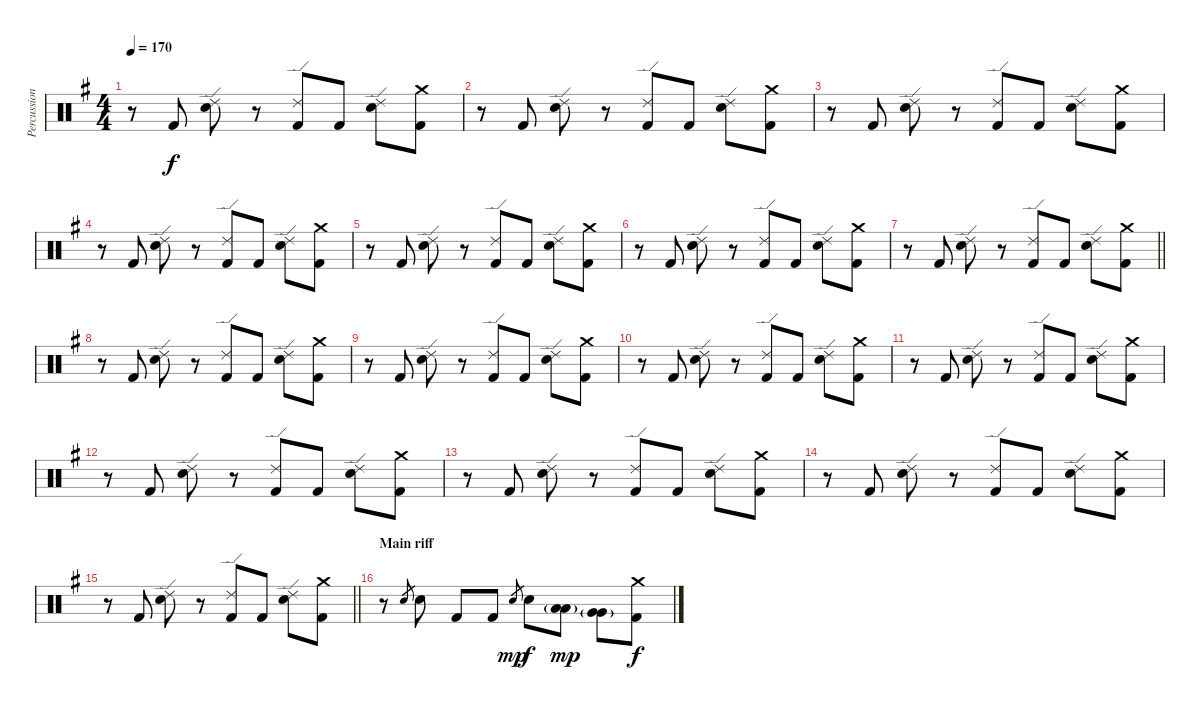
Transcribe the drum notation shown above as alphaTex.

\track ("Percussion" "Percussion") {instrument percussion}
\staff {score}
\articulation defaults
\ts (4 4)
\section ("" "")
\tempo 170
\clef neutral
\ks g
r.8{dy f} "Kick (hit) 2".8 ("Ride (edge) 2" "Electric Snare (hit)").8 r.8 ("Ride (edge) 2" "Kick (hit) 2").8 "Kick (hit) 2".8 ("Ride (edge) 2" "Electric Snare (hit)").8 ("Crash medium (hit)" "Kick (hit) 2").8 |
r.8 "Kick (hit) 2".8 ("Ride (edge) 2" "Electric Snare (hit)").8 r.8 ("Ride (edge) 2" "Kick (hit) 2").8 "Kick (hit) 2".8 ("Ride (edge) 2" "Electric Snare (hit)").8 ("Crash medium (hit)" "Kick (hit) 2").8 |
r.8 "Kick (hit) 2".8 ("Ride (edge) 2" "Electric Snare (hit)").8 r.8 ("Ride (edge) 2" "Kick (hit) 2").8 "Kick (hit) 2".8 ("Ride (edge) 2" "Electric Snare (hit)").8 ("Crash medium (hit)" "Kick (hit) 2").8 |
r.8 "Kick (hit) 2".8 ("Ride (edge) 2" "Electric Snare (hit)").8 r.8 ("Ride (edge) 2" "Kick (hit) 2").8 "Kick (hit) 2".8 ("Ride (edge) 2" "Electric Snare (hit)").8 ("Crash medium (hit)" "Kick (hit) 2").8 |
r.8 "Kick (hit) 2".8 ("Ride (edge) 2" "Electric Snare (hit)").8 r.8 ("Ride (edge) 2" "Kick (hit) 2").8 "Kick (hit) 2".8 ("Ride (edge) 2" "Electric Snare (hit)").8 ("Crash medium (hit)" "Kick (hit) 2").8 |
r.8 "Kick (hit) 2".8 ("Ride (edge) 2" "Electric Snare (hit)").8 r.8 ("Ride (edge) 2" "Kick (hit) 2").8 "Kick (hit) 2".8 ("Ride (edge) 2" "Electric Snare (hit)").8 ("Crash medium (hit)" "Kick (hit) 2").8 |
\barLineRight lightlight
r.8 "Kick (hit) 2".8 ("Ride (edge) 2" "Electric Snare (hit)").8 r.8 ("Ride (edge) 2" "Kick (hit) 2").8 "Kick (hit) 2".8 ("Ride (edge) 2" "Electric Snare (hit)").8 ("Crash medium (hit)" "Kick (hit) 2").8 |
r.8 "Kick (hit) 2".8 ("Ride (edge) 2" "Electric Snare (hit)").8 r.8 ("Ride (edge) 2" "Kick (hit) 2").8 "Kick (hit) 2".8 ("Ride (edge) 2" "Electric Snare (hit)").8 ("Crash medium (hit)" "Kick (hit) 2").8 |
r.8 "Kick (hit) 2".8 ("Ride (edge) 2" "Electric Snare (hit)").8 r.8 ("Ride (edge) 2" "Kick (hit) 2").8 "Kick (hit) 2".8 ("Ride (edge) 2" "Electric Snare (hit)").8 ("Crash medium (hit)" "Kick (hit) 2").8 |
r.8 "Kick (hit) 2".8 ("Ride (edge) 2" "Electric Snare (hit)").8 r.8 ("Ride (edge) 2" "Kick (hit) 2").8 "Kick (hit) 2".8 ("Ride (edge) 2" "Electric Snare (hit)").8 ("Crash medium (hit)" "Kick (hit) 2").8 |
r.8 "Kick (hit) 2".8 ("Ride (edge) 2" "Electric Snare (hit)").8 r.8 ("Ride (edge) 2" "Kick (hit) 2").8 "Kick (hit) 2".8 ("Ride (edge) 2" "Electric Snare (hit)").8 ("Crash medium (hit)" "Kick (hit) 2").8 |
r.8 "Kick (hit) 2".8 ("Ride (edge) 2" "Electric Snare (hit)").8 r.8 ("Ride (edge) 2" "Kick (hit) 2").8 "Kick (hit) 2".8 ("Ride (edge) 2" "Electric Snare (hit)").8 ("Crash medium (hit)" "Kick (hit) 2").8 |
r.8 "Kick (hit) 2".8 ("Ride (edge) 2" "Electric Snare (hit)").8 r.8 ("Ride (edge) 2" "Kick (hit) 2").8 "Kick (hit) 2".8 ("Ride (edge) 2" "Electric Snare (hit)").8 ("Crash medium (hit)" "Kick (hit) 2").8 |
r.8 "Kick (hit) 2".8 ("Ride (edge) 2" "Electric Snare (hit)").8 r.8 ("Ride (edge) 2" "Kick (hit) 2").8 "Kick (hit) 2".8 ("Ride (edge) 2" "Electric Snare (hit)").8 ("Crash medium (hit)" "Kick (hit) 2").8 |
\barLineRight lightlight
r.8 "Kick (hit) 2".8 ("Ride (edge) 2" "Electric Snare (hit)").8 r.8 ("Ride (edge) 2" "Kick (hit) 2").8 "Kick (hit) 2".8 ("Ride (edge) 2" "Electric Snare (hit)").8 ("Crash medium (hit)" "Kick (hit) 2").8 |
\section ("" "Main riff")
r.8 "Electric Snare (hit)".8{gr} "Electric Snare (hit)".8 "Kick (hit) 2".8 "Kick (hit) 2".8 "Electric Snare (hit)".8{gr dy mp} "Electric Snare (hit)".8{dy f} ("Low Tom (hit)"{g} "Low Tom (hit)").8{dy mp} ("Very Low Tom (hit)"{g} "Very Low Tom (hit)").8 ("Crash medium (hit)" "Kick (hit) 2").8{dy f}
